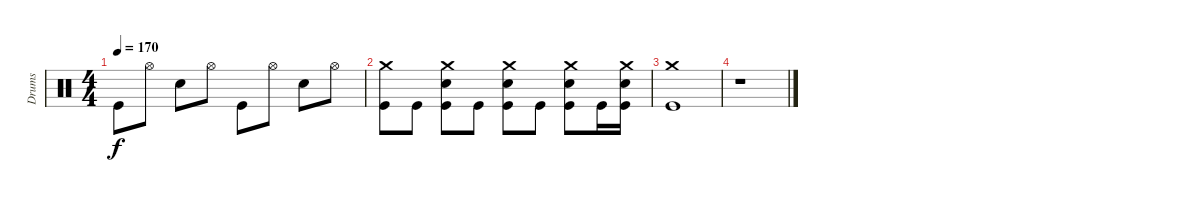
\track ("Drums" "Drums") {instrument percussion}
\staff {score}
\articulation defaults
\ts (4 4)
\tempo 170
\clef neutral
\ks c "Kick (hit)".8{dy f} "Hi-Hat (open)".8 "Electric Snare (hit)".8 "Hi-Hat (open)".8 "Kick (hit)".8 "Hi-Hat (open)".8 "Electric Snare (hit)".8 "Hi-Hat (open)".8
|
("Crash medium (hit)" "Kick (hit)").8 "Kick (hit)".8 ("Crash medium (hit)" "Electric Snare (hit)" "Kick (hit)").8 "Kick (hit)".8 ("Crash medium (hit)" "Electric Snare (hit)" "Kick (hit)").8 "Kick (hit)".8 ("Crash medium (hit)" "Electric Snare (hit)" "Kick (hit)").8 "Kick (hit)".16 ("Crash medium (hit)" "Electric Snare (hit)" "Kick (hit)").16 |
("Crash medium (hit)" "Kick (hit)").1 |
r.1
